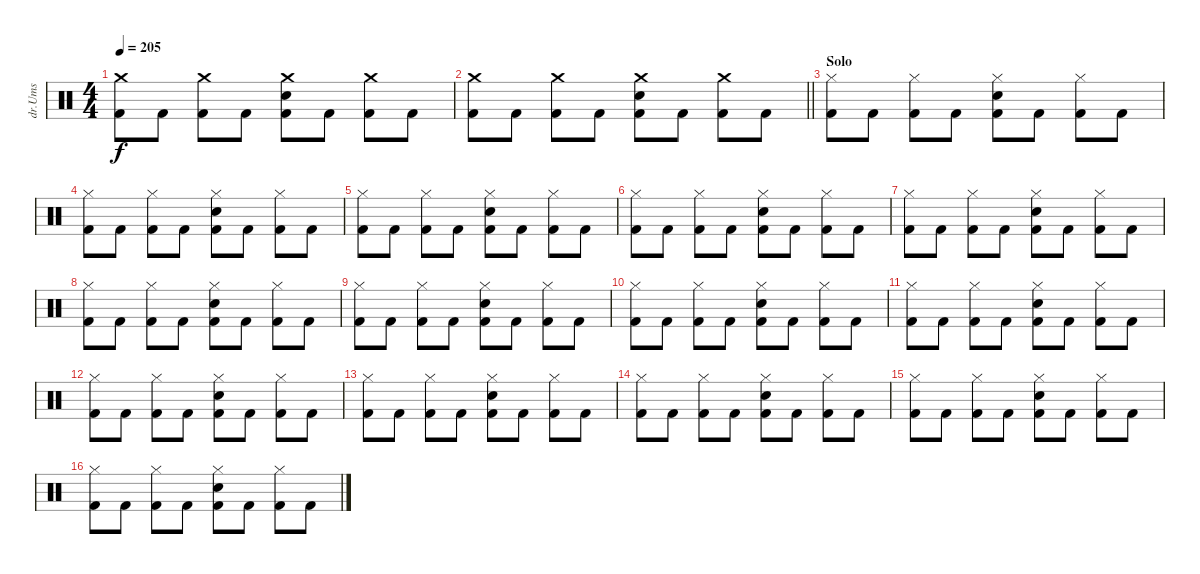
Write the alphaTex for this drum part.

\track ("dr.Ums" "dr.Ums") {instrument percussion}
\staff {score}
\articulation defaults
\ts (4 4)
\tempo 205
\clef neutral
\ks c
("Crash medium (hit)" "Kick (hit) 2").8{dy f} "Kick (hit) 2".8 ("Crash medium (hit)" "Kick (hit) 2").8 "Kick (hit) 2".8 ("Crash medium (hit)" "Snare (hit) 2" "Kick (hit) 2").8 "Kick (hit) 2".8 ("Crash medium (hit)" "Kick (hit) 2").8 "Kick (hit) 2".8 |
\barLineRight lightlight
("Crash medium (hit)" "Kick (hit) 2").8 "Kick (hit) 2".8 ("Crash medium (hit)" "Kick (hit) 2").8 "Kick (hit) 2".8 ("Crash medium (hit)" "Snare (hit) 2" "Kick (hit) 2").8 "Kick (hit) 2".8 ("Crash medium (hit)" "Kick (hit) 2").8 "Kick (hit) 2".8 |
\section ("" "Solo")
("Hi-Hat (closed)" "Kick (hit) 2").8 "Kick (hit) 2".8 ("Hi-Hat (closed)" "Kick (hit) 2").8 "Kick (hit) 2".8 ("Hi-Hat (closed)" "Snare (hit) 2" "Kick (hit) 2").8 "Kick (hit) 2".8 ("Hi-Hat (closed)" "Kick (hit) 2").8 "Kick (hit) 2".8 |
("Hi-Hat (closed)" "Kick (hit) 2").8 "Kick (hit) 2".8 ("Hi-Hat (closed)" "Kick (hit) 2").8 "Kick (hit) 2".8 ("Hi-Hat (closed)" "Snare (hit) 2" "Kick (hit) 2").8 "Kick (hit) 2".8 ("Hi-Hat (closed)" "Kick (hit) 2").8 "Kick (hit) 2".8 |
("Hi-Hat (closed)" "Kick (hit) 2").8 "Kick (hit) 2".8 ("Hi-Hat (closed)" "Kick (hit) 2").8 "Kick (hit) 2".8 ("Hi-Hat (closed)" "Snare (hit) 2" "Kick (hit) 2").8 "Kick (hit) 2".8 ("Hi-Hat (closed)" "Kick (hit) 2").8 "Kick (hit) 2".8 |
("Hi-Hat (closed)" "Kick (hit) 2").8 "Kick (hit) 2".8 ("Hi-Hat (closed)" "Kick (hit) 2").8 "Kick (hit) 2".8 ("Hi-Hat (closed)" "Snare (hit) 2" "Kick (hit) 2").8 "Kick (hit) 2".8 ("Hi-Hat (closed)" "Kick (hit) 2").8 "Kick (hit) 2".8 |
("Hi-Hat (closed)" "Kick (hit) 2").8 "Kick (hit) 2".8 ("Hi-Hat (closed)" "Kick (hit) 2").8 "Kick (hit) 2".8 ("Hi-Hat (closed)" "Snare (hit) 2" "Kick (hit) 2").8 "Kick (hit) 2".8 ("Hi-Hat (closed)" "Kick (hit) 2").8 "Kick (hit) 2".8 |
("Hi-Hat (closed)" "Kick (hit) 2").8 "Kick (hit) 2".8 ("Hi-Hat (closed)" "Kick (hit) 2").8 "Kick (hit) 2".8 ("Hi-Hat (closed)" "Snare (hit) 2" "Kick (hit) 2").8 "Kick (hit) 2".8 ("Hi-Hat (closed)" "Kick (hit) 2").8 "Kick (hit) 2".8 |
("Hi-Hat (closed)" "Kick (hit) 2").8 "Kick (hit) 2".8 ("Hi-Hat (closed)" "Kick (hit) 2").8 "Kick (hit) 2".8 ("Hi-Hat (closed)" "Snare (hit) 2" "Kick (hit) 2").8 "Kick (hit) 2".8 ("Hi-Hat (closed)" "Kick (hit) 2").8 "Kick (hit) 2".8 |
("Hi-Hat (closed)" "Kick (hit) 2").8 "Kick (hit) 2".8 ("Hi-Hat (closed)" "Kick (hit) 2").8 "Kick (hit) 2".8 ("Hi-Hat (closed)" "Snare (hit) 2" "Kick (hit) 2").8 "Kick (hit) 2".8 ("Hi-Hat (closed)" "Kick (hit) 2").8 "Kick (hit) 2".8 |
("Hi-Hat (closed)" "Kick (hit) 2").8 "Kick (hit) 2".8 ("Hi-Hat (closed)" "Kick (hit) 2").8 "Kick (hit) 2".8 ("Hi-Hat (closed)" "Snare (hit) 2" "Kick (hit) 2").8 "Kick (hit) 2".8 ("Hi-Hat (closed)" "Kick (hit) 2").8 "Kick (hit) 2".8 |
("Hi-Hat (closed)" "Kick (hit) 2").8 "Kick (hit) 2".8 ("Hi-Hat (closed)" "Kick (hit) 2").8 "Kick (hit) 2".8 ("Hi-Hat (closed)" "Snare (hit) 2" "Kick (hit) 2").8 "Kick (hit) 2".8 ("Hi-Hat (closed)" "Kick (hit) 2").8 "Kick (hit) 2".8 |
("Hi-Hat (closed)" "Kick (hit) 2").8 "Kick (hit) 2".8 ("Hi-Hat (closed)" "Kick (hit) 2").8 "Kick (hit) 2".8 ("Hi-Hat (closed)" "Snare (hit) 2" "Kick (hit) 2").8 "Kick (hit) 2".8 ("Hi-Hat (closed)" "Kick (hit) 2").8 "Kick (hit) 2".8 |
("Hi-Hat (closed)" "Kick (hit) 2").8 "Kick (hit) 2".8 ("Hi-Hat (closed)" "Kick (hit) 2").8 "Kick (hit) 2".8 ("Hi-Hat (closed)" "Snare (hit) 2" "Kick (hit) 2").8 "Kick (hit) 2".8 ("Hi-Hat (closed)" "Kick (hit) 2").8 "Kick (hit) 2".8 |
("Hi-Hat (closed)" "Kick (hit) 2").8 "Kick (hit) 2".8 ("Hi-Hat (closed)" "Kick (hit) 2").8 "Kick (hit) 2".8 ("Hi-Hat (closed)" "Snare (hit) 2" "Kick (hit) 2").8 "Kick (hit) 2".8 ("Hi-Hat (closed)" "Kick (hit) 2").8 "Kick (hit) 2".8 |
("Hi-Hat (closed)" "Kick (hit) 2").8 "Kick (hit) 2".8 ("Hi-Hat (closed)" "Kick (hit) 2").8 "Kick (hit) 2".8 ("Hi-Hat (closed)" "Snare (hit) 2" "Kick (hit) 2").8 "Kick (hit) 2".8 ("Hi-Hat (closed)" "Kick (hit) 2").8 "Kick (hit) 2".8
